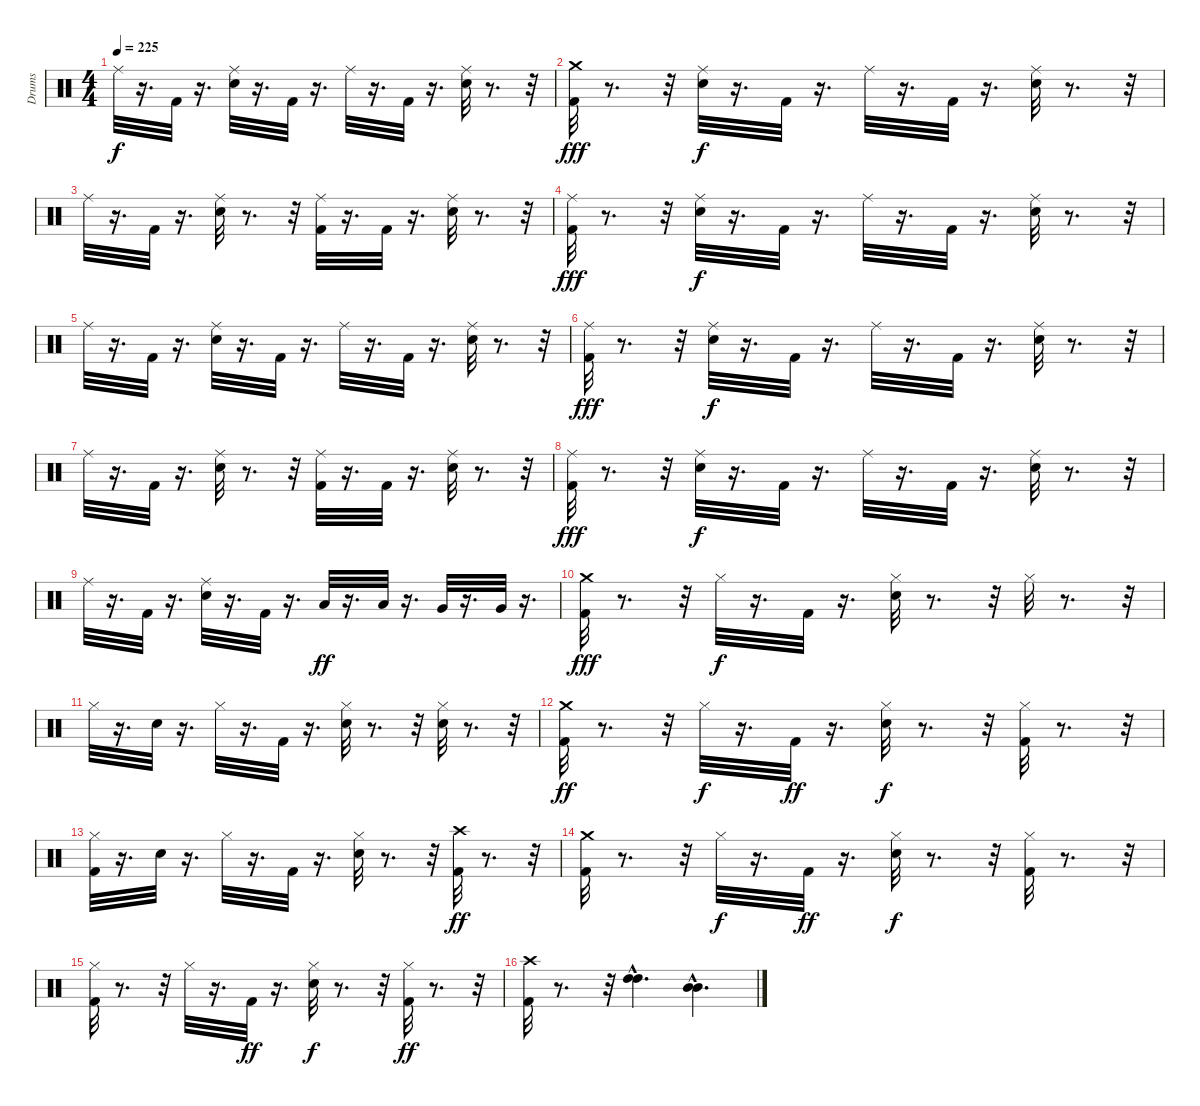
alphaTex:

\track ("Drums" "Drums") {instrument percussion}
\staff {score}
\articulation defaults
\ts (4 4)
\tempo 225
\clef neutral
\ks c "Ride (middle)".32{dy f}
r.16{d} "Kick (hit) 2".32 r.16{d} ("Ride (middle)" "Snare (hit) 2").32 r.16{d} "Kick (hit) 2".32 r.16{d} "Ride (middle)".32 r.16{d} "Kick (hit) 2".32 r.16{d} ("Ride (middle)" "Snare (hit) 2").32 r.8{d} r.32 |
("Crash medium (hit)" "Kick (hit) 2").32{dy fff} r.8{d} r.32 ("Ride (middle)" "Snare (hit) 2").32{dy f} r.16{d} "Kick (hit) 2".32 r.16{d} "Ride (middle)".32 r.16{d} "Kick (hit) 2".32 r.16{d} ("Ride (middle)" "Snare (hit) 2").32 r.8{d} r.32 |
"Ride (middle)".32 r.16{d} "Kick (hit) 2".32 r.16{d} ("Ride (middle)" "Snare (hit) 2").32 r.8{d} r.32 ("Ride (middle)" "Kick (hit) 2").32 r.16{d} "Kick (hit) 2".32 r.16{d} ("Ride (middle)" "Snare (hit) 2").32 r.8{d} r.32 |
("Ride (middle)" "Kick (hit) 2").32{dy fff} r.8{d} r.32 ("Ride (middle)" "Snare (hit) 2").32{dy f} r.16{d} "Kick (hit) 2".32 r.16{d} "Ride (middle)".32 r.16{d} "Kick (hit) 2".32 r.16{d} ("Ride (middle)" "Snare (hit) 2").32 r.8{d} r.32 |
"Ride (middle)".32 r.16{d} "Kick (hit) 2".32 r.16{d} ("Ride (middle)" "Snare (hit) 2").32 r.16{d} "Kick (hit) 2".32 r.16{d} "Ride (middle)".32 r.16{d} "Kick (hit) 2".32 r.16{d} ("Ride (middle)" "Snare (hit) 2").32 r.8{d} r.32 |
("Ride (middle)" "Kick (hit) 2").32{dy fff} r.8{d} r.32 ("Ride (middle)" "Snare (hit) 2").32{dy f} r.16{d} "Kick (hit) 2".32 r.16{d} "Ride (middle)".32 r.16{d} "Kick (hit) 2".32 r.16{d} ("Ride (middle)" "Snare (hit) 2").32 r.8{d} r.32 |
"Ride (middle)".32 r.16{d} "Kick (hit) 2".32 r.16{d} ("Ride (middle)" "Snare (hit) 2").32 r.8{d} r.32 ("Ride (middle)" "Kick (hit) 2").32 r.16{d} "Kick (hit) 2".32 r.16{d} ("Ride (middle)" "Snare (hit) 2").32 r.8{d} r.32 |
("Ride (middle)" "Kick (hit) 2").32{dy fff} r.8{d} r.32 ("Ride (middle)" "Snare (hit) 2").32{dy f} r.16{d} "Kick (hit) 2".32 r.16{d} "Ride (middle)".32 r.16{d} "Kick (hit) 2".32 r.16{d} ("Ride (middle)" "Snare (hit) 2").32 r.8{d} r.32 |
"Ride (middle)".32 r.16{d} "Kick (hit) 2".32 r.16{d} ("Ride (middle)" "Snare (hit) 2").32 r.16{d} "Kick (hit) 2".32 r.16{d} "Low Tom (hit)".32{dy ff} r.16{d} "Low Tom (hit)".32 r.16{d} "Very Low Tom (hit)".32 r.16{d} "Very Low Tom (hit)".32 r.16{d} |
("Kick (hit) 2" "Crash medium (hit)").32{dy fff} r.8{d} r.32 "Hi-Hat (closed)".32{dy f} r.16{d} "Kick (hit) 2".32 r.16{d} ("Hi-Hat (closed)" "Snare (hit) 2").32 r.8{d} r.32 "Hi-Hat (closed)".32 r.8{d} r.32 |
"Hi-Hat (closed)".32 r.16{d} "Snare (hit) 2".32 r.16{d} "Hi-Hat (closed)".32 r.16{d} "Kick (hit) 2".32 r.16{d} ("Hi-Hat (closed)" "Snare (hit) 2").32 r.8{d} r.32 ("Hi-Hat (closed)" "Snare (hit) 2").32 r.8{d} r.32 |
("Crash medium (hit)" "Kick (hit) 2").32{dy ff} r.8{d} r.32 "Hi-Hat (closed)".32{dy f} r.16{d} "Kick (hit) 2".32{dy ff} r.16{d} ("Hi-Hat (closed)" "Snare (hit) 2").32{dy f} r.8{d} r.32 ("Kick (hit) 2" "Hi-Hat (closed)").32 r.8{d} r.32 |
("Kick (hit) 2" "Hi-Hat (closed)").32 r.16{d} "Snare (hit) 2".32 r.16{d} "Hi-Hat (closed)".32 r.16{d} "Kick (hit) 2".32 r.16{d} ("Hi-Hat (closed)" "Snare (hit) 2").32 r.8{d} r.32 ("Kick (hit) 2" "Crash high (hit)").32{dy ff} r.8{d} r.32 |
("Kick (hit) 2" "Crash medium (hit)").32 r.8{d} r.32 "Hi-Hat (closed)".32{dy f} r.16{d} "Kick (hit) 2".32{dy ff} r.16{d} ("Snare (hit) 2" "Hi-Hat (closed)").32{dy f} r.8{d} r.32 ("Kick (hit) 2" "Hi-Hat (closed)").32 r.8{d} r.32 |
("Kick (hit) 2" "Hi-Hat (closed)").32 r.8{d} r.32 "Hi-Hat (closed)".32 r.16{d} "Kick (hit) 2".32{dy ff} r.16{d} ("Snare (hit) 2" "Hi-Hat (closed)").32{dy f} r.8{d} r.32 ("Hi-Hat (closed)" "Kick (hit) 2").32{dy ff} r.8{d} r.32 |
("Crash high (hit)" "Kick (hit) 2").32 r.8{d} r.32 ("High Tom (hit)"{hac} "High Tom (hit)").4{d} ("Mid Tom (hit)"{hac} "Mid Tom (hit)").4{d}
